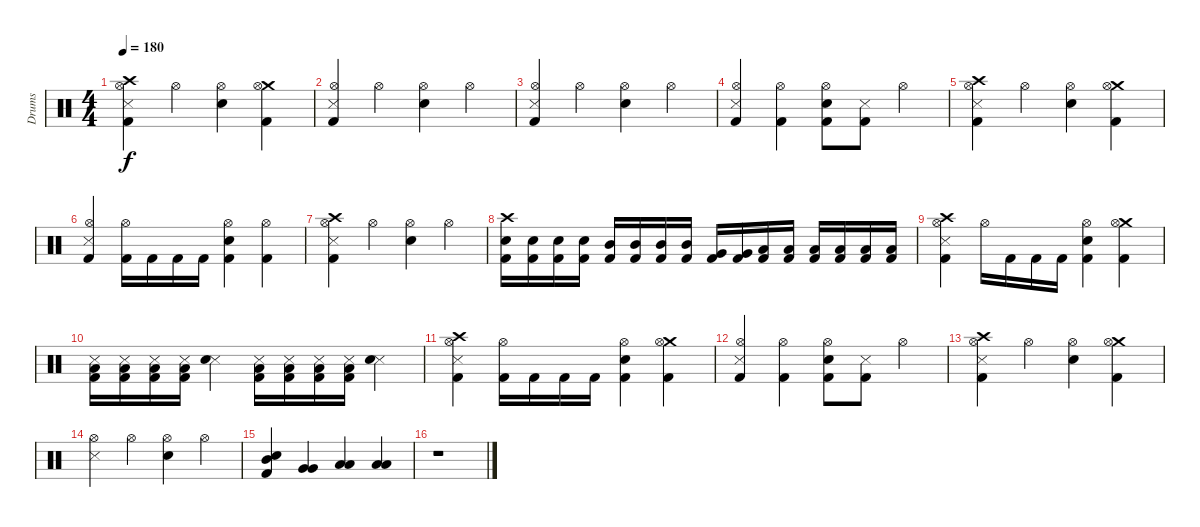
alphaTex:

\track ("Drums" "Drums") {instrument percussion}
\staff {score}
\articulation defaults
\ts (4 4)
\tempo 180
\clef neutral
\ks c
("Crash high (hit)" "Snare (side stick) 3" "Hi-Hat (open)" "Kick (hit) 2").4{dy f} "Hi-Hat (open)".4 ("Hi-Hat (open)" "Electric Snare (hit)").4 ("Crash medium (hit)" "Hi-Hat (open)" "Kick (hit) 2").4 |
("Snare (side stick) 3" "Hi-Hat (open)" "Kick (hit) 2").4 "Hi-Hat (open)".4 ("Hi-Hat (open)" "Electric Snare (hit)").4 "Hi-Hat (open)".4 |
("Snare (side stick) 3" "Hi-Hat (open)" "Kick (hit) 2").4 "Hi-Hat (open)".4 ("Hi-Hat (open)" "Electric Snare (hit)").4 "Hi-Hat (open)".4 |
("Snare (side stick) 3" "Hi-Hat (open)" "Kick (hit) 2").4 ("Hi-Hat (open)" "Kick (hit) 2").4 ("Hi-Hat (open)" "Electric Snare (hit)" "Kick (hit) 2").8 ("Snare (side stick) 3" "Kick (hit) 2").8 "Hi-Hat (open)".4 |
("Crash high (hit)" "Snare (side stick) 3" "Hi-Hat (open)" "Kick (hit) 2").4 "Hi-Hat (open)".4 ("Hi-Hat (open)" "Electric Snare (hit)").4 ("Crash medium (hit)" "Hi-Hat (open)" "Kick (hit) 2").4 |
("Snare (side stick) 3" "Hi-Hat (open)" "Kick (hit) 2").4 ("Hi-Hat (open)" "Kick (hit) 2").16 "Kick (hit) 2".16 "Kick (hit) 2".16 "Kick (hit) 2".16 ("Hi-Hat (open)" "Electric Snare (hit)" "Kick (hit) 2").4 ("Hi-Hat (open)" "Kick (hit) 2").4 |
("Crash high (hit)" "Snare (side stick) 3" "Hi-Hat (open)" "Kick (hit) 2").4 "Hi-Hat (open)".4 ("Hi-Hat (open)" "Electric Snare (hit)").4 "Hi-Hat (open)".4 |
("Crash high (hit)" "Electric Snare (hit)" "Kick (hit) 2").16 ("Electric Snare (hit)" "Kick (hit) 2").16 ("Electric Snare (hit)" "Kick (hit) 2").16 ("Electric Snare (hit)" "Kick (hit) 2").16 ("Mid Tom (hit)" "Kick (hit) 2").16 ("Mid Tom (hit)" "Kick (hit) 2").16 ("Mid Tom (hit)" "Kick (hit) 2").16 ("Mid Tom (hit)" "Kick (hit) 2").16 ("Very Low Tom (hit)" "Kick (hit) 2").16 ("Very Low Tom (hit)" "Kick (hit) 2").16 ("Low Tom (hit)" "Kick (hit) 2").16 ("Low Tom (hit)" "Kick (hit) 2").16 ("Low Floor Tom (hit)" "Kick (hit) 2").16 ("Low Floor Tom (hit)" "Kick (hit) 2").16 ("Low Floor Tom (hit)" "Kick (hit) 2").16 ("Low Floor Tom (hit)" "Kick (hit) 2").16 |
("Crash high (hit)" "Snare (side stick) 3" "Hi-Hat (open)" "Kick (hit) 2").4 "Hi-Hat (open)".16 "Kick (hit) 2".16 "Kick (hit) 2".16 "Kick (hit) 2".16 ("Hi-Hat (open)" "Electric Snare (hit)" "Kick (hit) 2").4 ("Crash medium (hit)" "Hi-Hat (open)" "Kick (hit) 2").4 |
("Snare (side stick) 3" "Low Floor Tom (hit)" "Kick (hit) 2").16 ("Snare (side stick) 3" "Low Floor Tom (hit)" "Kick (hit) 2").16 ("Snare (side stick) 3" "Low Floor Tom (hit)" "Kick (hit) 2").16 ("Snare (side stick) 3" "Low Floor Tom (hit)" "Kick (hit) 2").16 ("Snare (side stick) 3" "Electric Snare (hit)").4 ("Snare (side stick) 3" "Low Floor Tom (hit)" "Kick (hit) 2").16 ("Snare (side stick) 3" "Low Floor Tom (hit)" "Kick (hit) 2").16 ("Snare (side stick) 3" "Low Floor Tom (hit)" "Kick (hit) 2").16 ("Snare (side stick) 3" "Low Floor Tom (hit)" "Kick (hit) 2").16 ("Snare (side stick) 3" "Electric Snare (hit)").4 |
("Crash high (hit)" "Snare (side stick) 3" "Hi-Hat (open)" "Kick (hit) 2").4 ("Hi-Hat (open)" "Kick (hit) 2").16 "Kick (hit) 2".16 "Kick (hit) 2".16 "Kick (hit) 2".16 ("Hi-Hat (open)" "Electric Snare (hit)" "Kick (hit) 2").4 ("Crash medium (hit)" "Hi-Hat (open)" "Kick (hit) 2").4 |
("Snare (side stick) 3" "Hi-Hat (open)" "Kick (hit) 2").4 ("Hi-Hat (open)" "Kick (hit) 2").4 ("Hi-Hat (open)" "Electric Snare (hit)" "Kick (hit) 2").8 ("Snare (side stick) 3" "Kick (hit) 2").8 "Hi-Hat (open)".4 |
("Crash high (hit)" "Snare (side stick) 3" "Hi-Hat (open)" "Kick (hit) 2").4 "Hi-Hat (open)".4 ("Hi-Hat (open)" "Electric Snare (hit)").4 ("Crash medium (hit)" "Hi-Hat (open)" "Kick (hit) 2").4 |
("Snare (side stick) 3" "Hi-Hat (open)").4 "Hi-Hat (open)".4 ("Hi-Hat (open)" "Electric Snare (hit)").4 "Hi-Hat (open)".4 |
("Mid Tom (hit)" "Electric Snare (hit)" "Kick (hit) 2").4 ("Very Low Tom (hit)" "Very Low Tom (hit)").4 ("Low Tom (hit)" "Low Tom (hit)").4 ("Low Floor Tom (hit)" "Low Floor Tom (hit)").4 |
r.1
